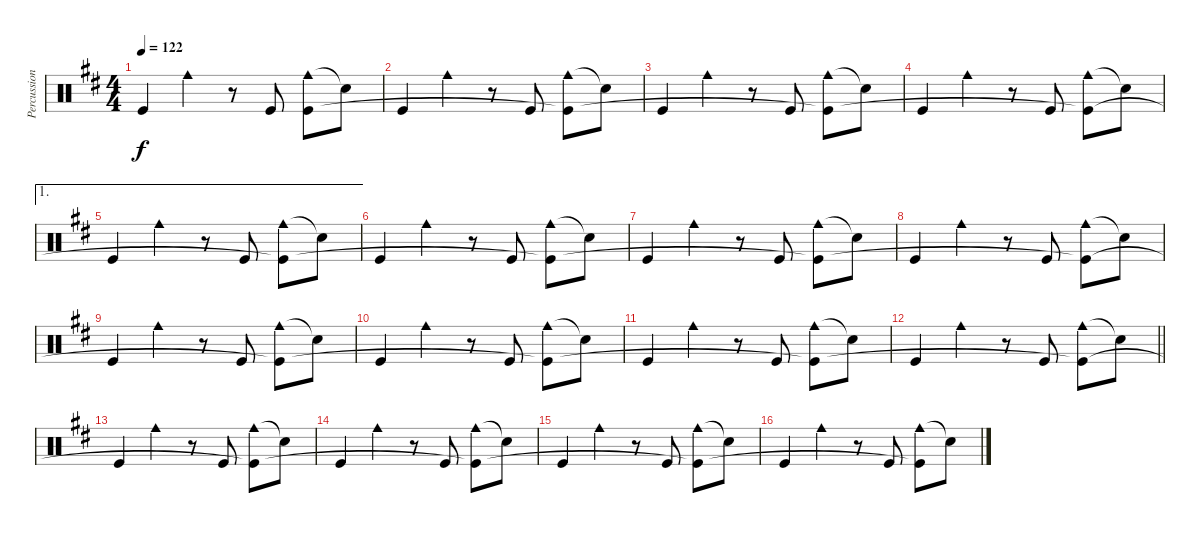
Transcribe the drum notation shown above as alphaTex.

\track ("Percussions" "Percussion") {instrument percussion}
\staff {score}
\articulation defaults
\ts (4 4)
\tempo 122
\clef neutral
\ks d "Kick (hit)".4{dy f} "Cowbell medium (hit)".4
r.8 "Kick (hit)".8 ("Cowbell medium (hit)" "Kick (hit)"{t}).8 "Snare (hit)"{t}.8 |
"Kick (hit)".4 "Cowbell medium (hit)".4 r.8 "Kick (hit)".8 ("Cowbell medium (hit)" "Kick (hit)"{t}).8 "Snare (hit)"{t}.8 |
"Kick (hit)".4 "Cowbell medium (hit)".4 r.8 "Kick (hit)".8 ("Cowbell medium (hit)" "Kick (hit)"{t}).8 "Snare (hit)"{t}.8 |
"Kick (hit)".4 "Cowbell medium (hit)".4 r.8 "Kick (hit)".8 ("Cowbell medium (hit)" "Kick (hit)"{t}).8 "Snare (hit)"{t}.8 |
\ae 1 "Kick (hit)".4 "Cowbell medium (hit)".4
r.8 "Kick (hit)".8 ("Cowbell medium (hit)" "Kick (hit)"{t}).8 "Snare (hit)"{t}.8 |
"Kick (hit)".4 "Cowbell medium (hit)".4 r.8 "Kick (hit)".8 ("Cowbell medium (hit)" "Kick (hit)"{t}).8 "Snare (hit)"{t}.8 |
"Kick (hit)".4 "Cowbell medium (hit)".4 r.8 "Kick (hit)".8 ("Cowbell medium (hit)" "Kick (hit)"{t}).8 "Snare (hit)"{t}.8 |
"Kick (hit)".4 "Cowbell medium (hit)".4 r.8 "Kick (hit)".8 ("Cowbell medium (hit)" "Kick (hit)"{t}).8 "Snare (hit)"{t}.8 |
"Kick (hit)".4 "Cowbell medium (hit)".4 r.8 "Kick (hit)".8 ("Cowbell medium (hit)" "Kick (hit)"{t}).8 "Snare (hit)"{t}.8 |
"Kick (hit)".4 "Cowbell medium (hit)".4 r.8 "Kick (hit)".8 ("Cowbell medium (hit)" "Kick (hit)"{t}).8 "Snare (hit)"{t}.8 |
"Kick (hit)".4 "Cowbell medium (hit)".4 r.8 "Kick (hit)".8 ("Cowbell medium (hit)" "Kick (hit)"{t}).8 "Snare (hit)"{t}.8 |
\barLineRight lightlight "Kick (hit)".4 "Cowbell medium (hit)".4
r.8 "Kick (hit)".8 ("Cowbell medium (hit)" "Kick (hit)"{t}).8 "Snare (hit)"{t}.8 |
"Kick (hit)".4 "Cowbell medium (hit)".4 r.8 "Kick (hit)".8 ("Cowbell medium (hit)" "Kick (hit)"{t}).8 "Snare (hit)"{t}.8 |
"Kick (hit)".4 "Cowbell medium (hit)".4 r.8 "Kick (hit)".8 ("Cowbell medium (hit)" "Kick (hit)"{t}).8 "Snare (hit)"{t}.8 |
"Kick (hit)".4 "Cowbell medium (hit)".4 r.8 "Kick (hit)".8 ("Cowbell medium (hit)" "Kick (hit)"{t}).8 "Snare (hit)"{t}.8 |
"Kick (hit)".4 "Cowbell medium (hit)".4 r.8 "Kick (hit)".8 ("Cowbell medium (hit)" "Kick (hit)"{t}).8 "Snare (hit)"{t}.8
